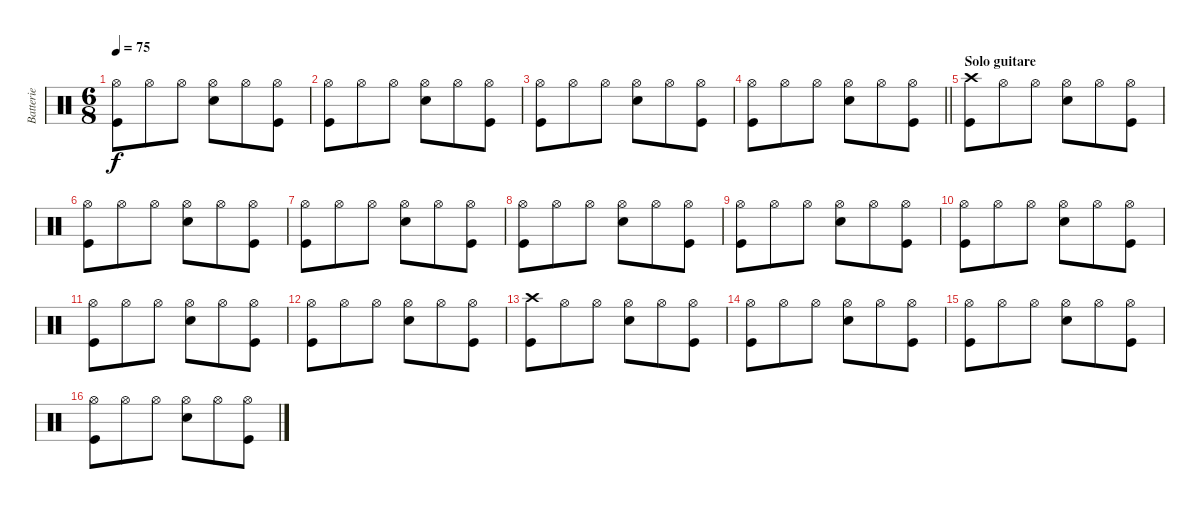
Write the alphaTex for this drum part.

\track ("Batterie" "Batterie") {instrument percussion}
\staff {score}
\articulation defaults
\ts (6 8)
\tempo 75
\clef neutral
\ks c
("Hi-Hat (open)" "Kick (hit)").8{dy f} "Hi-Hat (open)".8 "Hi-Hat (open)".8 ("Electric Snare (hit)" "Hi-Hat (open)").8 "Hi-Hat (open)".8 ("Kick (hit)" "Hi-Hat (open)").8 |
("Hi-Hat (open)" "Kick (hit)").8 "Hi-Hat (open)".8 "Hi-Hat (open)".8 ("Electric Snare (hit)" "Hi-Hat (open)").8 "Hi-Hat (open)".8 ("Kick (hit)" "Hi-Hat (open)").8 |
("Hi-Hat (open)" "Kick (hit)").8 "Hi-Hat (open)".8 "Hi-Hat (open)".8 ("Electric Snare (hit)" "Hi-Hat (open)").8 "Hi-Hat (open)".8 ("Kick (hit)" "Hi-Hat (open)").8 |
\barLineRight lightlight
("Hi-Hat (open)" "Kick (hit)").8 "Hi-Hat (open)".8 "Hi-Hat (open)".8 ("Electric Snare (hit)" "Hi-Hat (open)").8 "Hi-Hat (open)".8 ("Kick (hit)" "Hi-Hat (open)").8 |
\section ("" "Solo guitare")
("Kick (hit)" "Crash high (hit)").8 "Hi-Hat (open)".8 "Hi-Hat (open)".8 ("Electric Snare (hit)" "Hi-Hat (open)").8 "Hi-Hat (open)".8 ("Kick (hit)" "Hi-Hat (open)").8 |
("Hi-Hat (open)" "Kick (hit)").8 "Hi-Hat (open)".8 "Hi-Hat (open)".8 ("Electric Snare (hit)" "Hi-Hat (open)").8 "Hi-Hat (open)".8 ("Kick (hit)" "Hi-Hat (open)").8 |
("Hi-Hat (open)" "Kick (hit)").8 "Hi-Hat (open)".8 "Hi-Hat (open)".8 ("Electric Snare (hit)" "Hi-Hat (open)").8 "Hi-Hat (open)".8 ("Kick (hit)" "Hi-Hat (open)").8 |
("Hi-Hat (open)" "Kick (hit)").8 "Hi-Hat (open)".8 "Hi-Hat (open)".8 ("Electric Snare (hit)" "Hi-Hat (open)").8 "Hi-Hat (open)".8 ("Kick (hit)" "Hi-Hat (open)").8 |
("Hi-Hat (open)" "Kick (hit)").8 "Hi-Hat (open)".8 "Hi-Hat (open)".8 ("Electric Snare (hit)" "Hi-Hat (open)").8 "Hi-Hat (open)".8 ("Kick (hit)" "Hi-Hat (open)").8 |
("Hi-Hat (open)" "Kick (hit)").8 "Hi-Hat (open)".8 "Hi-Hat (open)".8 ("Electric Snare (hit)" "Hi-Hat (open)").8 "Hi-Hat (open)".8 ("Kick (hit)" "Hi-Hat (open)").8 |
("Hi-Hat (open)" "Kick (hit)").8 "Hi-Hat (open)".8 "Hi-Hat (open)".8 ("Electric Snare (hit)" "Hi-Hat (open)").8 "Hi-Hat (open)".8 ("Kick (hit)" "Hi-Hat (open)").8 |
("Hi-Hat (open)" "Kick (hit)").8 "Hi-Hat (open)".8 "Hi-Hat (open)".8 ("Electric Snare (hit)" "Hi-Hat (open)").8 "Hi-Hat (open)".8 ("Kick (hit)" "Hi-Hat (open)").8 |
("Kick (hit)" "Crash high (hit)").8 "Hi-Hat (open)".8 "Hi-Hat (open)".8 ("Electric Snare (hit)" "Hi-Hat (open)").8 "Hi-Hat (open)".8 ("Kick (hit)" "Hi-Hat (open)").8 |
("Hi-Hat (open)" "Kick (hit)").8 "Hi-Hat (open)".8 "Hi-Hat (open)".8 ("Electric Snare (hit)" "Hi-Hat (open)").8 "Hi-Hat (open)".8 ("Kick (hit)" "Hi-Hat (open)").8 |
("Hi-Hat (open)" "Kick (hit)").8 "Hi-Hat (open)".8 "Hi-Hat (open)".8 ("Electric Snare (hit)" "Hi-Hat (open)").8 "Hi-Hat (open)".8 ("Kick (hit)" "Hi-Hat (open)").8 |
("Hi-Hat (open)" "Kick (hit)").8 "Hi-Hat (open)".8 "Hi-Hat (open)".8 ("Electric Snare (hit)" "Hi-Hat (open)").8 "Hi-Hat (open)".8 ("Kick (hit)" "Hi-Hat (open)").8
